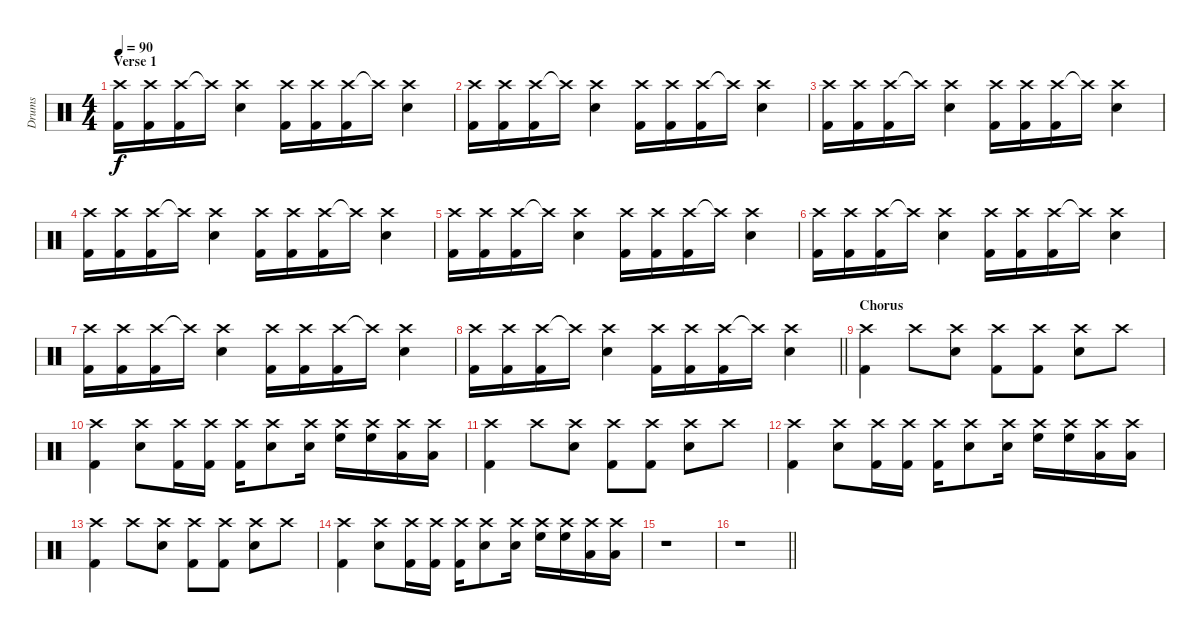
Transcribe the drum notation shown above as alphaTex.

\track ("Drums" "Drums") {instrument percussion}
\staff {score}
\articulation defaults
\ts (4 4)
\section ("" "Verse 1")
\tempo 90
\clef neutral
\ks c
("Crash high (hit)" "Kick (hit) 2").16{dy f} ("Crash high (hit)" "Kick (hit) 2").16 ("Crash high (hit)" "Kick (hit) 2").16 "Crash high (hit)"{t}.16 ("Crash high (hit)" "Electric Snare (hit)").4 ("Crash high (hit)" "Kick (hit) 2").16 ("Crash high (hit)" "Kick (hit) 2").16 ("Crash high (hit)" "Kick (hit) 2").16 "Crash high (hit)"{t}.16 ("Crash high (hit)" "Electric Snare (hit)").4 |
("Crash high (hit)" "Kick (hit) 2").16 ("Crash high (hit)" "Kick (hit) 2").16 ("Crash high (hit)" "Kick (hit) 2").16 "Crash high (hit)"{t}.16 ("Crash high (hit)" "Electric Snare (hit)").4 ("Crash high (hit)" "Kick (hit) 2").16 ("Crash high (hit)" "Kick (hit) 2").16 ("Crash high (hit)" "Kick (hit) 2").16 "Crash high (hit)"{t}.16 ("Crash high (hit)" "Electric Snare (hit)").4 |
("Crash high (hit)" "Kick (hit) 2").16 ("Crash high (hit)" "Kick (hit) 2").16 ("Crash high (hit)" "Kick (hit) 2").16 "Crash high (hit)"{t}.16 ("Crash high (hit)" "Electric Snare (hit)").4 ("Crash high (hit)" "Kick (hit) 2").16 ("Crash high (hit)" "Kick (hit) 2").16 ("Crash high (hit)" "Kick (hit) 2").16 "Crash high (hit)"{t}.16 ("Crash high (hit)" "Electric Snare (hit)").4 |
("Crash high (hit)" "Kick (hit) 2").16 ("Crash high (hit)" "Kick (hit) 2").16 ("Crash high (hit)" "Kick (hit) 2").16 "Crash high (hit)"{t}.16 ("Crash high (hit)" "Electric Snare (hit)").4 ("Crash high (hit)" "Kick (hit) 2").16 ("Crash high (hit)" "Kick (hit) 2").16 ("Crash high (hit)" "Kick (hit) 2").16 "Crash high (hit)"{t}.16 ("Crash high (hit)" "Electric Snare (hit)").4 |
("Crash high (hit)" "Kick (hit) 2").16 ("Crash high (hit)" "Kick (hit) 2").16 ("Crash high (hit)" "Kick (hit) 2").16 "Crash high (hit)"{t}.16 ("Crash high (hit)" "Electric Snare (hit)").4 ("Crash high (hit)" "Kick (hit) 2").16 ("Crash high (hit)" "Kick (hit) 2").16 ("Crash high (hit)" "Kick (hit) 2").16 "Crash high (hit)"{t}.16 ("Crash high (hit)" "Electric Snare (hit)").4 |
("Crash high (hit)" "Kick (hit) 2").16 ("Crash high (hit)" "Kick (hit) 2").16 ("Crash high (hit)" "Kick (hit) 2").16 "Crash high (hit)"{t}.16 ("Crash high (hit)" "Electric Snare (hit)").4 ("Crash high (hit)" "Kick (hit) 2").16 ("Crash high (hit)" "Kick (hit) 2").16 ("Crash high (hit)" "Kick (hit) 2").16 "Crash high (hit)"{t}.16 ("Crash high (hit)" "Electric Snare (hit)").4 |
("Crash high (hit)" "Kick (hit) 2").16 ("Crash high (hit)" "Kick (hit) 2").16 ("Crash high (hit)" "Kick (hit) 2").16 "Crash high (hit)"{t}.16 ("Crash high (hit)" "Electric Snare (hit)").4 ("Crash high (hit)" "Kick (hit) 2").16 ("Crash high (hit)" "Kick (hit) 2").16 ("Crash high (hit)" "Kick (hit) 2").16 "Crash high (hit)"{t}.16 ("Crash high (hit)" "Electric Snare (hit)").4 |
\barLineRight lightlight
("Crash high (hit)" "Kick (hit) 2").16 ("Crash high (hit)" "Kick (hit) 2").16 ("Crash high (hit)" "Kick (hit) 2").16 "Crash high (hit)"{t}.16 ("Crash high (hit)" "Electric Snare (hit)").4 ("Crash high (hit)" "Kick (hit) 2").16 ("Crash high (hit)" "Kick (hit) 2").16 ("Crash high (hit)" "Kick (hit) 2").16 "Crash high (hit)"{t}.16 ("Crash high (hit)" "Electric Snare (hit)").4 |
\section ("" "Chorus")
("Crash high (hit)" "Kick (hit) 2").4 "Crash high (hit)".8 ("Crash high (hit)" "Snare (hit) 2").8 ("Crash high (hit)" "Kick (hit) 2").8 ("Crash high (hit)" "Kick (hit) 2").8 ("Crash high (hit)" "Snare (hit) 2").8 "Crash high (hit)".8 |
("Crash high (hit)" "Kick (hit) 2").4 ("Crash high (hit)" "Snare (hit) 2").8 ("Crash high (hit)" "Kick (hit) 2").16 ("Crash high (hit)" "Kick (hit) 2").16 ("Crash high (hit)" "Kick (hit) 2").16 ("Crash high (hit)" "Snare (hit) 2").8 ("Crash high (hit)" "Snare (hit) 2").16 ("Crash high (hit)" "High Floor Tom (hit)").16 ("Crash high (hit)" "High Floor Tom (hit)").16 ("Crash high (hit)" "Low Tom (hit)").16 ("Crash high (hit)" "Low Tom (hit)").16 |
("Crash high (hit)" "Kick (hit) 2").4 "Crash high (hit)".8 ("Crash high (hit)" "Snare (hit) 2").8 ("Crash high (hit)" "Kick (hit) 2").8 ("Crash high (hit)" "Kick (hit) 2").8 ("Crash high (hit)" "Snare (hit) 2").8 "Crash high (hit)".8 |
("Crash high (hit)" "Kick (hit) 2").4 ("Crash high (hit)" "Snare (hit) 2").8 ("Crash high (hit)" "Kick (hit) 2").16 ("Crash high (hit)" "Kick (hit) 2").16 ("Crash high (hit)" "Kick (hit) 2").16 ("Crash high (hit)" "Snare (hit) 2").8 ("Crash high (hit)" "Snare (hit) 2").16 ("Crash high (hit)" "High Floor Tom (hit)").16 ("Crash high (hit)" "High Floor Tom (hit)").16 ("Crash high (hit)" "Low Tom (hit)").16 ("Crash high (hit)" "Low Tom (hit)").16 |
("Crash high (hit)" "Kick (hit) 2").4 "Crash high (hit)".8 ("Crash high (hit)" "Snare (hit) 2").8 ("Crash high (hit)" "Kick (hit) 2").8 ("Crash high (hit)" "Kick (hit) 2").8 ("Crash high (hit)" "Snare (hit) 2").8 "Crash high (hit)".8 |
("Crash high (hit)" "Kick (hit) 2").4 ("Crash high (hit)" "Snare (hit) 2").8 ("Crash high (hit)" "Kick (hit) 2").16 ("Crash high (hit)" "Kick (hit) 2").16 ("Crash high (hit)" "Kick (hit) 2").16 ("Crash high (hit)" "Snare (hit) 2").8 ("Crash high (hit)" "Snare (hit) 2").16 ("Crash high (hit)" "High Floor Tom (hit)").16 ("Crash high (hit)" "High Floor Tom (hit)").16 ("Crash high (hit)" "Low Tom (hit)").16 ("Crash high (hit)" "Low Tom (hit)").16 |
r.1 |
\barLineRight lightlight
r.1
